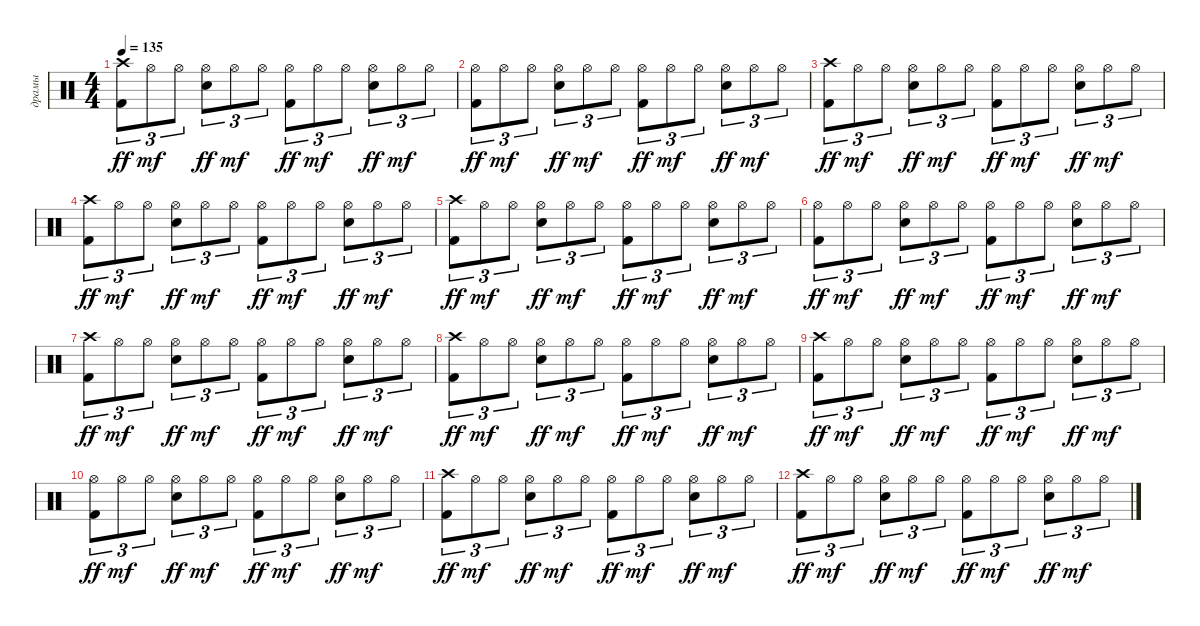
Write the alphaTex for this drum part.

\track ("драмы" "драмы") {instrument percussion}
\staff {score}
\articulation defaults
\ts (4 4)
\tempo 135
\clef neutral
\ks c
("Crash high (hit)" "Kick (hit) 2").8{tu (3 2) dy ff} "Hi-Hat (open)".8{tu (3 2) dy mf} "Hi-Hat (open)".8{tu (3 2)} ("Hi-Hat (open)" "Snare (hit) 2").8{tu (3 2) dy ff} "Hi-Hat (open)".8{tu (3 2) dy mf} "Hi-Hat (open)".8{tu (3 2)} ("Hi-Hat (open)" "Kick (hit) 2").8{tu (3 2) dy ff} "Hi-Hat (open)".8{tu (3 2) dy mf} "Hi-Hat (open)".8{tu (3 2)} ("Hi-Hat (open)" "Snare (hit) 2").8{tu (3 2) dy ff} "Hi-Hat (open)".8{tu (3 2) dy mf} "Hi-Hat (open)".8{tu (3 2)} |
("Hi-Hat (open)" "Kick (hit) 2").8{tu (3 2) dy ff} "Hi-Hat (open)".8{tu (3 2) dy mf} "Hi-Hat (open)".8{tu (3 2)} ("Hi-Hat (open)" "Snare (hit) 2").8{tu (3 2) dy ff} "Hi-Hat (open)".8{tu (3 2) dy mf} "Hi-Hat (open)".8{tu (3 2)} ("Hi-Hat (open)" "Kick (hit) 2").8{tu (3 2) dy ff} "Hi-Hat (open)".8{tu (3 2) dy mf} "Hi-Hat (open)".8{tu (3 2)} ("Hi-Hat (open)" "Snare (hit) 2").8{tu (3 2) dy ff} "Hi-Hat (open)".8{tu (3 2) dy mf} "Hi-Hat (open)".8{tu (3 2)} |
("Crash high (hit)" "Kick (hit) 2").8{tu (3 2) dy ff} "Hi-Hat (open)".8{tu (3 2) dy mf} "Hi-Hat (open)".8{tu (3 2)} ("Hi-Hat (open)" "Snare (hit) 2").8{tu (3 2) dy ff} "Hi-Hat (open)".8{tu (3 2) dy mf} "Hi-Hat (open)".8{tu (3 2)} ("Hi-Hat (open)" "Kick (hit) 2").8{tu (3 2) dy ff} "Hi-Hat (open)".8{tu (3 2) dy mf} "Hi-Hat (open)".8{tu (3 2)} ("Hi-Hat (open)" "Snare (hit) 2").8{tu (3 2) dy ff} "Hi-Hat (open)".8{tu (3 2) dy mf} "Hi-Hat (open)".8{tu (3 2)} |
("Crash high (hit)" "Kick (hit) 2").8{tu (3 2) dy ff} "Hi-Hat (open)".8{tu (3 2) dy mf} "Hi-Hat (open)".8{tu (3 2)} ("Hi-Hat (open)" "Snare (hit) 2").8{tu (3 2) dy ff} "Hi-Hat (open)".8{tu (3 2) dy mf} "Hi-Hat (open)".8{tu (3 2)} ("Hi-Hat (open)" "Kick (hit) 2").8{tu (3 2) dy ff} "Hi-Hat (open)".8{tu (3 2) dy mf} "Hi-Hat (open)".8{tu (3 2)} ("Hi-Hat (open)" "Snare (hit) 2").8{tu (3 2) dy ff} "Hi-Hat (open)".8{tu (3 2) dy mf} "Hi-Hat (open)".8{tu (3 2)} |
("Crash high (hit)" "Kick (hit) 2").8{tu (3 2) dy ff} "Hi-Hat (open)".8{tu (3 2) dy mf} "Hi-Hat (open)".8{tu (3 2)} ("Hi-Hat (open)" "Snare (hit) 2").8{tu (3 2) dy ff} "Hi-Hat (open)".8{tu (3 2) dy mf} "Hi-Hat (open)".8{tu (3 2)} ("Hi-Hat (open)" "Kick (hit) 2").8{tu (3 2) dy ff} "Hi-Hat (open)".8{tu (3 2) dy mf} "Hi-Hat (open)".8{tu (3 2)} ("Hi-Hat (open)" "Snare (hit) 2").8{tu (3 2) dy ff} "Hi-Hat (open)".8{tu (3 2) dy mf} "Hi-Hat (open)".8{tu (3 2)} |
("Hi-Hat (open)" "Kick (hit) 2").8{tu (3 2) dy ff} "Hi-Hat (open)".8{tu (3 2) dy mf} "Hi-Hat (open)".8{tu (3 2)} ("Hi-Hat (open)" "Snare (hit) 2").8{tu (3 2) dy ff} "Hi-Hat (open)".8{tu (3 2) dy mf} "Hi-Hat (open)".8{tu (3 2)} ("Hi-Hat (open)" "Kick (hit) 2").8{tu (3 2) dy ff} "Hi-Hat (open)".8{tu (3 2) dy mf} "Hi-Hat (open)".8{tu (3 2)} ("Hi-Hat (open)" "Snare (hit) 2").8{tu (3 2) dy ff} "Hi-Hat (open)".8{tu (3 2) dy mf} "Hi-Hat (open)".8{tu (3 2)} |
("Crash high (hit)" "Kick (hit) 2").8{tu (3 2) dy ff} "Hi-Hat (open)".8{tu (3 2) dy mf} "Hi-Hat (open)".8{tu (3 2)} ("Hi-Hat (open)" "Snare (hit) 2").8{tu (3 2) dy ff} "Hi-Hat (open)".8{tu (3 2) dy mf} "Hi-Hat (open)".8{tu (3 2)} ("Hi-Hat (open)" "Kick (hit) 2").8{tu (3 2) dy ff} "Hi-Hat (open)".8{tu (3 2) dy mf} "Hi-Hat (open)".8{tu (3 2)} ("Hi-Hat (open)" "Snare (hit) 2").8{tu (3 2) dy ff} "Hi-Hat (open)".8{tu (3 2) dy mf} "Hi-Hat (open)".8{tu (3 2)} |
("Crash high (hit)" "Kick (hit) 2").8{tu (3 2) dy ff} "Hi-Hat (open)".8{tu (3 2) dy mf} "Hi-Hat (open)".8{tu (3 2)} ("Hi-Hat (open)" "Snare (hit) 2").8{tu (3 2) dy ff} "Hi-Hat (open)".8{tu (3 2) dy mf} "Hi-Hat (open)".8{tu (3 2)} ("Hi-Hat (open)" "Kick (hit) 2").8{tu (3 2) dy ff} "Hi-Hat (open)".8{tu (3 2) dy mf} "Hi-Hat (open)".8{tu (3 2)} ("Hi-Hat (open)" "Snare (hit) 2").8{tu (3 2) dy ff} "Hi-Hat (open)".8{tu (3 2) dy mf} "Hi-Hat (open)".8{tu (3 2)} |
("Crash high (hit)" "Kick (hit) 2").8{tu (3 2) dy ff} "Hi-Hat (open)".8{tu (3 2) dy mf} "Hi-Hat (open)".8{tu (3 2)} ("Hi-Hat (open)" "Snare (hit) 2").8{tu (3 2) dy ff} "Hi-Hat (open)".8{tu (3 2) dy mf} "Hi-Hat (open)".8{tu (3 2)} ("Hi-Hat (open)" "Kick (hit) 2").8{tu (3 2) dy ff} "Hi-Hat (open)".8{tu (3 2) dy mf} "Hi-Hat (open)".8{tu (3 2)} ("Hi-Hat (open)" "Snare (hit) 2").8{tu (3 2) dy ff} "Hi-Hat (open)".8{tu (3 2) dy mf} "Hi-Hat (open)".8{tu (3 2)} |
("Hi-Hat (open)" "Kick (hit) 2").8{tu (3 2) dy ff} "Hi-Hat (open)".8{tu (3 2) dy mf} "Hi-Hat (open)".8{tu (3 2)} ("Hi-Hat (open)" "Snare (hit) 2").8{tu (3 2) dy ff} "Hi-Hat (open)".8{tu (3 2) dy mf} "Hi-Hat (open)".8{tu (3 2)} ("Hi-Hat (open)" "Kick (hit) 2").8{tu (3 2) dy ff} "Hi-Hat (open)".8{tu (3 2) dy mf} "Hi-Hat (open)".8{tu (3 2)} ("Hi-Hat (open)" "Snare (hit) 2").8{tu (3 2) dy ff} "Hi-Hat (open)".8{tu (3 2) dy mf} "Hi-Hat (open)".8{tu (3 2)} |
("Crash high (hit)" "Kick (hit) 2").8{tu (3 2) dy ff} "Hi-Hat (open)".8{tu (3 2) dy mf} "Hi-Hat (open)".8{tu (3 2)} ("Hi-Hat (open)" "Snare (hit) 2").8{tu (3 2) dy ff} "Hi-Hat (open)".8{tu (3 2) dy mf} "Hi-Hat (open)".8{tu (3 2)} ("Hi-Hat (open)" "Kick (hit) 2").8{tu (3 2) dy ff} "Hi-Hat (open)".8{tu (3 2) dy mf} "Hi-Hat (open)".8{tu (3 2)} ("Hi-Hat (open)" "Snare (hit) 2").8{tu (3 2) dy ff} "Hi-Hat (open)".8{tu (3 2) dy mf} "Hi-Hat (open)".8{tu (3 2)} |
("Crash high (hit)" "Kick (hit) 2").8{tu (3 2) dy ff} "Hi-Hat (open)".8{tu (3 2) dy mf} "Hi-Hat (open)".8{tu (3 2)} ("Hi-Hat (open)" "Snare (hit) 2").8{tu (3 2) dy ff} "Hi-Hat (open)".8{tu (3 2) dy mf} "Hi-Hat (open)".8{tu (3 2)} ("Hi-Hat (open)" "Kick (hit) 2").8{tu (3 2) dy ff} "Hi-Hat (open)".8{tu (3 2) dy mf} "Hi-Hat (open)".8{tu (3 2)} ("Hi-Hat (open)" "Snare (hit) 2").8{tu (3 2) dy ff} "Hi-Hat (open)".8{tu (3 2) dy mf} "Hi-Hat (open)".8{tu (3 2)}
